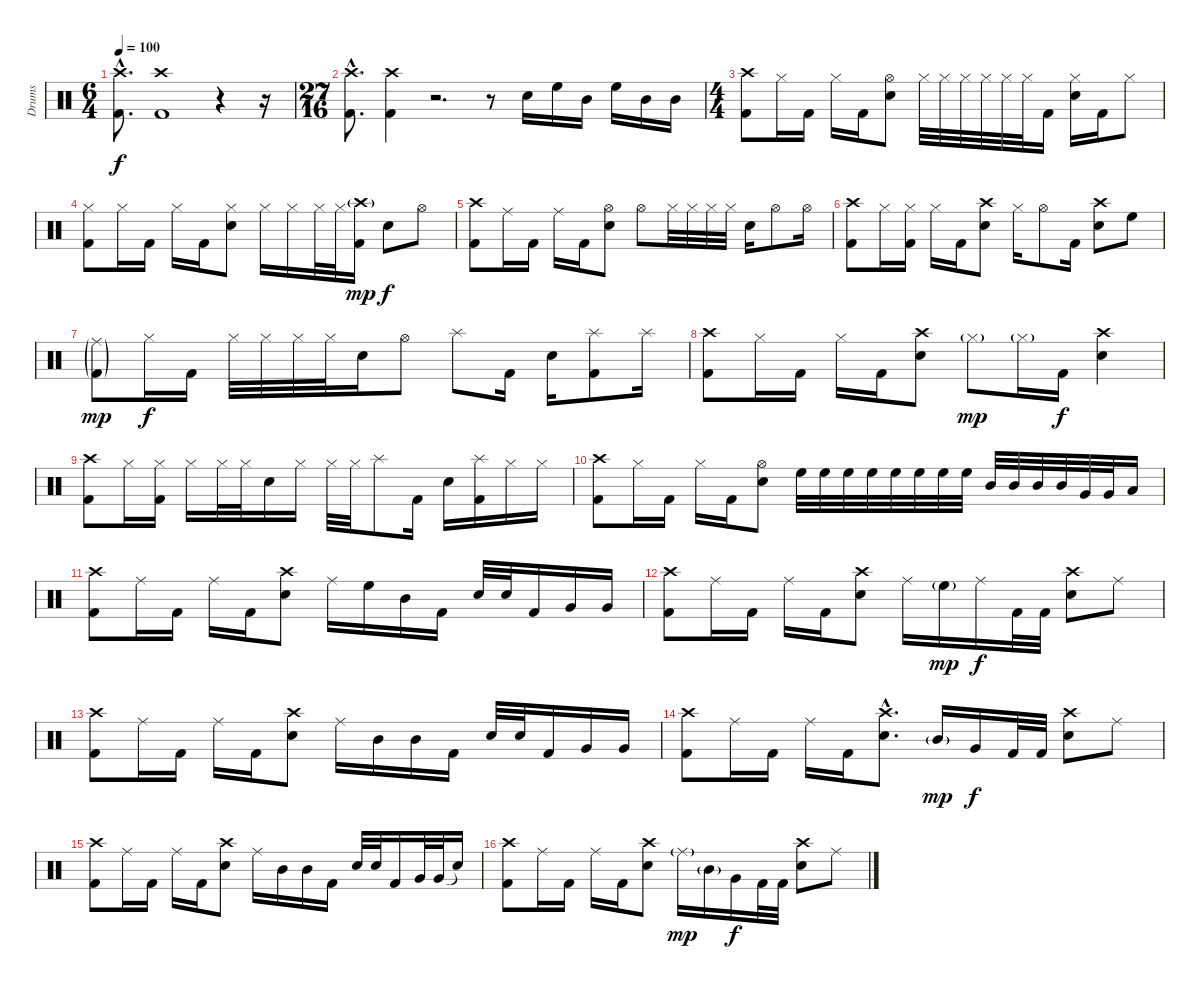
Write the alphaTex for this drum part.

\track ("Drums" "Drums") {instrument percussion}
\staff {score}
\articulation defaults
\ts (6 4)
\tempo 100
\clef neutral
\ks c
("Crash high (hit)"{hac} "Kick (hit) 2"{hac}).8{d dy f} ("Crash high (hit)" "Kick (hit) 2").1 r.4 r.16 |
\ts (27 16)
("Crash high (hit)"{hac} "Kick (hit) 2"{hac}).8{d} ("Crash high (hit)" "Kick (hit) 2").4 r.2{d} r.8 "Snare (hit) 2".16 "High Floor Tom (hit)".16 "Mid Tom (hit)".16 "High Floor Tom (hit)".16 "Mid Tom (hit)".16 "Mid Tom (hit)".16 |
\ts (4 4)
("Crash high (hit)" "Kick (hit) 2").8 "Hi-Hat (closed)".16 "Kick (hit) 2".16 "Hi-Hat (closed)".16 "Kick (hit) 2".16 ("Hi-Hat (open)" "Snare (hit) 2").8 "Hi-Hat (closed)".32 "Hi-Hat (closed)".32 "Hi-Hat (closed)".32 "Hi-Hat (closed)".32 "Hi-Hat (closed)".32 "Hi-Hat (closed)".32 "Kick (hit) 2".16 ("Hi-Hat (closed)" "Snare (hit) 2").16 "Kick (hit) 2".16 "Hi-Hat (closed)".8 |
("Hi-Hat (closed)" "Kick (hit) 2").8 "Hi-Hat (closed)".16 "Kick (hit) 2".16 "Hi-Hat (closed)".16 "Kick (hit) 2".16 ("Hi-Hat (closed)" "Snare (hit) 2").8 "Hi-Hat (closed)".16 "Hi-Hat (closed)".16 "Hi-Hat (closed)".32 "Hi-Hat (closed)".32 ("Crash high (hit)"{g} "Kick (hit) 2").16{dy mp} "Snare (hit) 2".8{dy f} "Hi-Hat (open)".8 |
("Crash high (hit)" "Kick (hit) 2").8 "Ride (middle)".16 "Kick (hit) 2".16 "Ride (middle)".16 "Kick (hit) 2".16 ("Hi-Hat (open)" "Snare (hit) 2").8 "Hi-Hat (open)".8 "Hi-Hat (closed)".32 "Hi-Hat (closed)".32 "Hi-Hat (closed)".32 "Hi-Hat (closed)".32 "Snare (hit) 2".16 "Hi-Hat (open)".8 "Hi-Hat (open)".16 |
("Crash high (hit)" "Kick (hit) 2").8 "Hi-Hat (closed)".16 ("Hi-Hat (closed)" "Kick (hit) 2").16 "Hi-Hat (closed)".16 "Kick (hit) 2".16 ("Crash high (hit)" "Snare (hit) 2").8 "Hi-Hat (closed)".16 "Hi-Hat (open)".8 "Kick (hit) 2".16 ("Crash high (hit)" "Snare (hit) 2").8 "High Floor Tom (hit)".8 |
("Ride (middle)"{g} "Kick (hit) 2"{g}).8{dy mp} "Hi-Hat (closed)".16{dy f} "Kick (hit) 2".16 "Hi-Hat (closed)".32 "Hi-Hat (closed)".32 "Hi-Hat (closed)".32 "Hi-Hat (closed)".32 "Snare (hit) 2".16 "Hi-Hat (open)".8 "Splash (hit)".8 "Kick (hit) 2".16 "Snare (hit) 2".16 ("Kick (hit) 2" "Splash (hit)").8 "Splash (hit)".16 |
("Crash high (hit)" "Kick (hit) 2").8 "Hi-Hat (closed)".16 "Kick (hit) 2".16 "Hi-Hat (closed)".16 "Kick (hit) 2".16 ("Crash high (hit)" "Snare (hit) 2").8 "Hi-Hat (closed)"{g}.8{dy mp} "Hi-Hat (closed)"{g}.16 "Kick (hit) 2".16{dy f} ("Crash high (hit)" "Snare (hit) 2").4 |
("Crash high (hit)" "Kick (hit) 2").8 "Hi-Hat (closed)".16 ("Hi-Hat (closed)" "Kick (hit) 2").16 "Hi-Hat (closed)".16 "Hi-Hat (closed)".32 "Hi-Hat (closed)".32 "Snare (hit) 2".16 "Hi-Hat (closed)".16 "Hi-Hat (closed)".32 "Hi-Hat (closed)".32 "Splash (hit)".8 "Kick (hit) 2".16 "Snare (hit) 2".16 ("Splash (hit)" "Kick (hit) 2").16 "Hi-Hat (closed)".16 "Hi-Hat (closed)".16 |
("Crash high (hit)" "Kick (hit) 2").8 "Hi-Hat (closed)".16 "Kick (hit) 2".16 "Hi-Hat (closed)".16 "Kick (hit) 2".16 ("Hi-Hat (open)" "Snare (hit) 2").8 "High Floor Tom (hit)".32 "High Floor Tom (hit)".32 "High Floor Tom (hit)".32 "High Floor Tom (hit)".32 "High Floor Tom (hit)".32 "High Floor Tom (hit)".32 "High Floor Tom (hit)".32 "High Floor Tom (hit)".32 "Mid Tom (hit)".32 "Mid Tom (hit)".32 "Mid Tom (hit)".32 "Mid Tom (hit)".32 "Very Low Tom (hit)".32 "Very Low Tom (hit)".32 "Low Floor Tom (hit)".16 |
("Crash high (hit)" "Kick (hit) 2").8 "Ride (middle)".16 "Kick (hit) 2".16 "Ride (middle)".16 "Kick (hit) 2".16 ("Crash high (hit)" "Snare (hit) 2").8 "Ride (middle)".16 "High Floor Tom (hit)".16 "Mid Tom (hit)".16 "Kick (hit) 2".16 "Snare (hit) 2".32 "Snare (hit) 2".32 "Kick (hit) 2".16 "Very Low Tom (hit)".16 "Very Low Tom (hit)".16 |
("Crash high (hit)" "Kick (hit) 2").8 "Ride (middle)".16 "Kick (hit) 2".16 "Ride (middle)".16 "Kick (hit) 2".16 ("Crash high (hit)" "Snare (hit) 2").8 "Ride (middle)".16 "High Floor Tom (hit)"{g}.16{dy mp} "Ride (middle)".16{dy f} "Kick (hit) 2".32 "Kick (hit) 2".32 ("Crash high (hit)" "Snare (hit) 2").8 "Ride (middle)".8 |
("Crash high (hit)" "Kick (hit) 2").8 "Ride (middle)".16 "Kick (hit) 2".16 "Ride (middle)".16 "Kick (hit) 2".16 ("Crash high (hit)" "Snare (hit) 2").8 "Ride (middle)".16 "Mid Tom (hit)".16 "Mid Tom (hit)".16 "Kick (hit) 2".16 "Snare (hit) 2".32 "Snare (hit) 2".32 "Kick (hit) 2".16 "Very Low Tom (hit)".16 "Very Low Tom (hit)".16 |
("Crash high (hit)" "Kick (hit) 2").8 "Ride (middle)".16 "Kick (hit) 2".16 "Ride (middle)".16 "Kick (hit) 2".16 ("Crash high (hit)"{hac} "Snare (hit) 2"{hac}).8{d} "Mid Tom (hit)"{g}.16{dy mp} "Very Low Tom (hit)".16{dy f} "Kick (hit) 2".32 "Kick (hit) 2".32 ("Crash high (hit)" "Snare (hit) 2").8 "Ride (middle)".8 |
("Crash high (hit)" "Kick (hit) 2").8 "Ride (middle)".16 "Kick (hit) 2".16 "Ride (middle)".16 "Kick (hit) 2".16 ("Crash high (hit)" "Snare (hit) 2").8 "Ride (middle)".16 "Mid Tom (hit)".16 "Mid Tom (hit)".16 "Kick (hit) 2".16 "Snare (hit) 2".32 "Snare (hit) 2".32 "Kick (hit) 2".16 "Very Low Tom (hit)".32 "Very Low Tom (hit)".32 "Snare (hit)"{t}.16 |
("Crash high (hit)" "Kick (hit) 2").8 "Ride (middle)".16 "Kick (hit) 2".16 "Ride (middle)".16 "Kick (hit) 2".16 ("Crash high (hit)" "Snare (hit) 2").8 "Ride (middle)"{g}.16{dy mp} "Mid Tom (hit)"{g}.16 "Very Low Tom (hit)".16{dy f} "Kick (hit) 2".32 "Kick (hit) 2".32 ("Crash high (hit)" "Snare (hit) 2").8 "Ride (middle)".8
